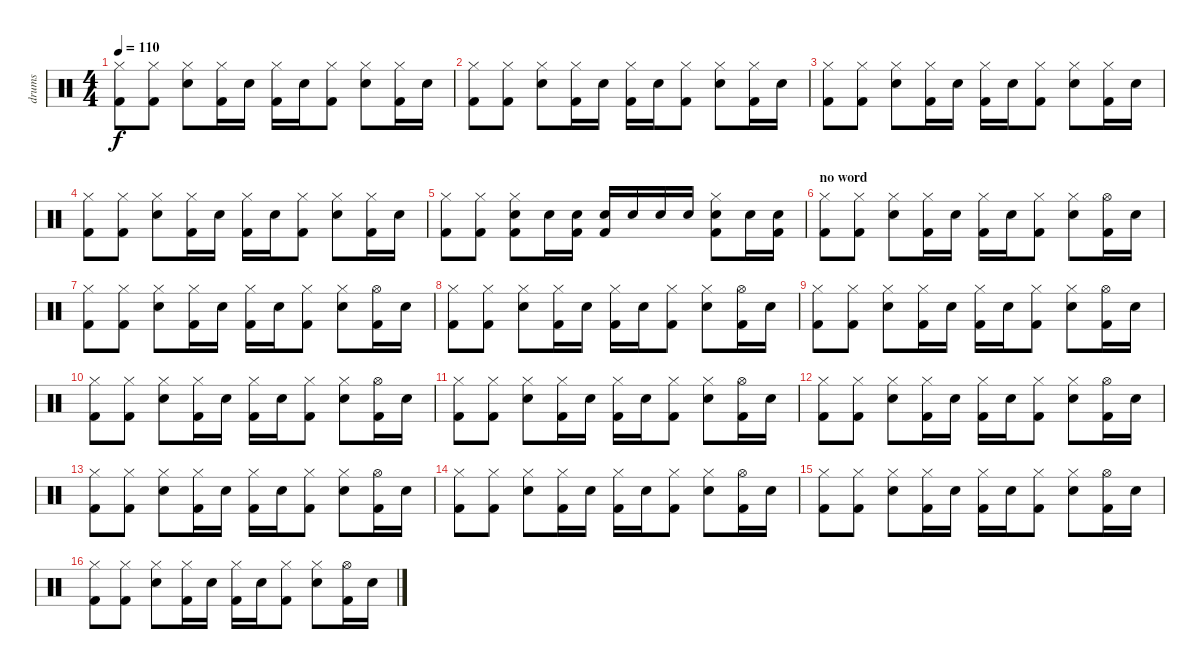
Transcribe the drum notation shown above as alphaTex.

\track ("drums" "drums") {instrument percussion}
\staff {score}
\articulation defaults
\ts (4 4)
\tempo 110
\clef neutral
\ks c
("Hi-Hat (closed)" "Kick (hit) 2").8{dy f} ("Hi-Hat (closed)" "Kick (hit) 2").8 ("Hi-Hat (closed)" "Snare (hit) 2").8 ("Hi-Hat (closed)" "Kick (hit) 2").16 "Snare (hit) 2".16 ("Hi-Hat (closed)" "Kick (hit) 2").16 "Snare (hit) 2".16 ("Hi-Hat (closed)" "Kick (hit) 2").8 ("Hi-Hat (closed)" "Snare (hit) 2").8 ("Hi-Hat (closed)" "Kick (hit) 2").16 "Snare (hit) 2".16 |
("Hi-Hat (closed)" "Kick (hit) 2").8 ("Hi-Hat (closed)" "Kick (hit) 2").8 ("Hi-Hat (closed)" "Snare (hit) 2").8 ("Hi-Hat (closed)" "Kick (hit) 2").16 "Snare (hit) 2".16 ("Hi-Hat (closed)" "Kick (hit) 2").16 "Snare (hit) 2".16 ("Hi-Hat (closed)" "Kick (hit) 2").8 ("Hi-Hat (closed)" "Snare (hit) 2").8 ("Hi-Hat (closed)" "Kick (hit) 2").16 "Snare (hit) 2".16 |
("Hi-Hat (closed)" "Kick (hit) 2").8 ("Hi-Hat (closed)" "Kick (hit) 2").8 ("Hi-Hat (closed)" "Snare (hit) 2").8 ("Hi-Hat (closed)" "Kick (hit) 2").16 "Snare (hit) 2".16 ("Hi-Hat (closed)" "Kick (hit) 2").16 "Snare (hit) 2".16 ("Hi-Hat (closed)" "Kick (hit) 2").8 ("Hi-Hat (closed)" "Snare (hit) 2").8 ("Hi-Hat (closed)" "Kick (hit) 2").16 "Snare (hit) 2".16 |
("Hi-Hat (closed)" "Kick (hit) 2").8 ("Hi-Hat (closed)" "Kick (hit) 2").8 ("Hi-Hat (closed)" "Snare (hit) 2").8 ("Hi-Hat (closed)" "Kick (hit) 2").16 "Snare (hit) 2".16 ("Hi-Hat (closed)" "Kick (hit) 2").16 "Snare (hit) 2".16 ("Hi-Hat (closed)" "Kick (hit) 2").8 ("Hi-Hat (closed)" "Snare (hit) 2").8 ("Hi-Hat (closed)" "Kick (hit) 2").16 "Snare (hit) 2".16 |
("Hi-Hat (closed)" "Kick (hit) 2").8 ("Hi-Hat (closed)" "Kick (hit) 2").8 ("Hi-Hat (closed)" "Snare (hit) 2" "Kick (hit) 2").8 "Snare (hit) 2".16 ("Snare (hit) 2" "Kick (hit) 2").16 ("Snare (hit) 2" "Kick (hit) 2").16 "Snare (hit) 2".16 "Snare (hit) 2".16 "Snare (hit) 2".16 ("Hi-Hat (closed)" "Snare (hit) 2" "Kick (hit) 2").8 "Snare (hit) 2".16 ("Snare (hit) 2" "Kick (hit) 2").16 |
\section ("" "no word")
("Hi-Hat (closed)" "Kick (hit) 2").8 ("Hi-Hat (closed)" "Kick (hit) 2").8 ("Hi-Hat (closed)" "Snare (hit) 2").8 ("Hi-Hat (closed)" "Kick (hit) 2").16 "Snare (hit) 2".16 ("Hi-Hat (closed)" "Kick (hit) 2").16 "Snare (hit) 2".16 ("Hi-Hat (closed)" "Kick (hit) 2").8 ("Hi-Hat (closed)" "Snare (hit) 2").8 ("Hi-Hat (open)" "Kick (hit) 2").16 "Snare (hit) 2".16 |
("Hi-Hat (closed)" "Kick (hit) 2").8 ("Hi-Hat (closed)" "Kick (hit) 2").8 ("Hi-Hat (closed)" "Snare (hit) 2").8 ("Hi-Hat (closed)" "Kick (hit) 2").16 "Snare (hit) 2".16 ("Hi-Hat (closed)" "Kick (hit) 2").16 "Snare (hit) 2".16 ("Hi-Hat (closed)" "Kick (hit) 2").8 ("Hi-Hat (closed)" "Snare (hit) 2").8 ("Hi-Hat (open)" "Kick (hit) 2").16 "Snare (hit) 2".16 |
("Hi-Hat (closed)" "Kick (hit) 2").8 ("Hi-Hat (closed)" "Kick (hit) 2").8 ("Hi-Hat (closed)" "Snare (hit) 2").8 ("Hi-Hat (closed)" "Kick (hit) 2").16 "Snare (hit) 2".16 ("Hi-Hat (closed)" "Kick (hit) 2").16 "Snare (hit) 2".16 ("Hi-Hat (closed)" "Kick (hit) 2").8 ("Hi-Hat (closed)" "Snare (hit) 2").8 ("Hi-Hat (open)" "Kick (hit) 2").16 "Snare (hit) 2".16 |
("Hi-Hat (closed)" "Kick (hit) 2").8 ("Hi-Hat (closed)" "Kick (hit) 2").8 ("Hi-Hat (closed)" "Snare (hit) 2").8 ("Hi-Hat (closed)" "Kick (hit) 2").16 "Snare (hit) 2".16 ("Hi-Hat (closed)" "Kick (hit) 2").16 "Snare (hit) 2".16 ("Hi-Hat (closed)" "Kick (hit) 2").8 ("Hi-Hat (closed)" "Snare (hit) 2").8 ("Hi-Hat (open)" "Kick (hit) 2").16 "Snare (hit) 2".16 |
("Hi-Hat (closed)" "Kick (hit) 2").8 ("Hi-Hat (closed)" "Kick (hit) 2").8 ("Hi-Hat (closed)" "Snare (hit) 2").8 ("Hi-Hat (closed)" "Kick (hit) 2").16 "Snare (hit) 2".16 ("Hi-Hat (closed)" "Kick (hit) 2").16 "Snare (hit) 2".16 ("Hi-Hat (closed)" "Kick (hit) 2").8 ("Hi-Hat (closed)" "Snare (hit) 2").8 ("Hi-Hat (open)" "Kick (hit) 2").16 "Snare (hit) 2".16 |
("Hi-Hat (closed)" "Kick (hit) 2").8 ("Hi-Hat (closed)" "Kick (hit) 2").8 ("Hi-Hat (closed)" "Snare (hit) 2").8 ("Hi-Hat (closed)" "Kick (hit) 2").16 "Snare (hit) 2".16 ("Hi-Hat (closed)" "Kick (hit) 2").16 "Snare (hit) 2".16 ("Hi-Hat (closed)" "Kick (hit) 2").8 ("Hi-Hat (closed)" "Snare (hit) 2").8 ("Hi-Hat (open)" "Kick (hit) 2").16 "Snare (hit) 2".16 |
("Hi-Hat (closed)" "Kick (hit) 2").8 ("Hi-Hat (closed)" "Kick (hit) 2").8 ("Hi-Hat (closed)" "Snare (hit) 2").8 ("Hi-Hat (closed)" "Kick (hit) 2").16 "Snare (hit) 2".16 ("Hi-Hat (closed)" "Kick (hit) 2").16 "Snare (hit) 2".16 ("Hi-Hat (closed)" "Kick (hit) 2").8 ("Hi-Hat (closed)" "Snare (hit) 2").8 ("Hi-Hat (open)" "Kick (hit) 2").16 "Snare (hit) 2".16 |
("Hi-Hat (closed)" "Kick (hit) 2").8 ("Hi-Hat (closed)" "Kick (hit) 2").8 ("Hi-Hat (closed)" "Snare (hit) 2").8 ("Hi-Hat (closed)" "Kick (hit) 2").16 "Snare (hit) 2".16 ("Hi-Hat (closed)" "Kick (hit) 2").16 "Snare (hit) 2".16 ("Hi-Hat (closed)" "Kick (hit) 2").8 ("Hi-Hat (closed)" "Snare (hit) 2").8 ("Hi-Hat (open)" "Kick (hit) 2").16 "Snare (hit) 2".16 |
("Hi-Hat (closed)" "Kick (hit) 2").8 ("Hi-Hat (closed)" "Kick (hit) 2").8 ("Hi-Hat (closed)" "Snare (hit) 2").8 ("Hi-Hat (closed)" "Kick (hit) 2").16 "Snare (hit) 2".16 ("Hi-Hat (closed)" "Kick (hit) 2").16 "Snare (hit) 2".16 ("Hi-Hat (closed)" "Kick (hit) 2").8 ("Hi-Hat (closed)" "Snare (hit) 2").8 ("Hi-Hat (open)" "Kick (hit) 2").16 "Snare (hit) 2".16 |
("Hi-Hat (closed)" "Kick (hit) 2").8 ("Hi-Hat (closed)" "Kick (hit) 2").8 ("Hi-Hat (closed)" "Snare (hit) 2").8 ("Hi-Hat (closed)" "Kick (hit) 2").16 "Snare (hit) 2".16 ("Hi-Hat (closed)" "Kick (hit) 2").16 "Snare (hit) 2".16 ("Hi-Hat (closed)" "Kick (hit) 2").8 ("Hi-Hat (closed)" "Snare (hit) 2").8 ("Hi-Hat (open)" "Kick (hit) 2").16 "Snare (hit) 2".16 |
("Hi-Hat (closed)" "Kick (hit) 2").8 ("Hi-Hat (closed)" "Kick (hit) 2").8 ("Hi-Hat (closed)" "Snare (hit) 2").8 ("Hi-Hat (closed)" "Kick (hit) 2").16 "Snare (hit) 2".16 ("Hi-Hat (closed)" "Kick (hit) 2").16 "Snare (hit) 2".16 ("Hi-Hat (closed)" "Kick (hit) 2").8 ("Hi-Hat (closed)" "Snare (hit) 2").8 ("Hi-Hat (open)" "Kick (hit) 2").16 "Snare (hit) 2".16
